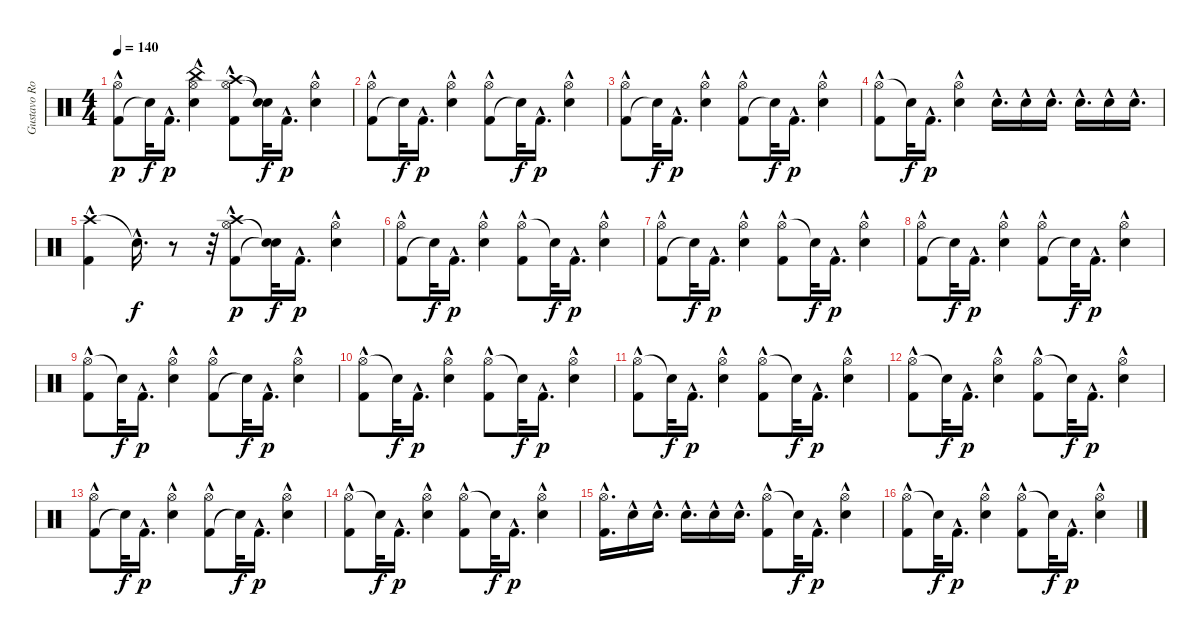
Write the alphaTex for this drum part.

\track ("Gustavo Rowek" "Gustavo Ro") {instrument percussion}
\staff {score}
\articulation defaults
\ts (4 4)
\tempo 140
\clef neutral
\ks c
("Kick (hit) 2"{hac} "Hi-Hat (open)").8{dy p} "Snare (hit)"{t}.32{dy f} "Kick (hit) 2"{hac}.16{d dy p} ("Hi-Hat (open)" "Snare (hit) 2"{hac} "China (hit)").4 ("Hi-Hat (open)" "Crash high (hit)" "Kick (hit) 2"{hac}).8 ("Snare (hit)"{t} "Snare (hit)"{t}).32{dy f} "Kick (hit) 2"{hac}.16{d dy p} ("Hi-Hat (open)" "Snare (hit) 2"{hac}).4 |
("Kick (hit) 2"{hac} "Hi-Hat (open)").8 "Snare (hit)"{t}.32{dy f} "Kick (hit) 2"{hac}.16{d dy p} ("Hi-Hat (open)" "Snare (hit) 2"{hac}).4 ("Kick (hit) 2"{hac} "Hi-Hat (open)").8 "Snare (hit)"{t}.32{dy f} "Kick (hit) 2"{hac}.16{d dy p} ("Hi-Hat (open)" "Snare (hit) 2"{hac}).4 |
("Kick (hit) 2"{hac} "Hi-Hat (open)").8 "Snare (hit)"{t}.32{dy f} "Kick (hit) 2"{hac}.16{d dy p} ("Snare (hit) 2"{hac} "Hi-Hat (open)").4 ("Kick (hit) 2"{hac} "Hi-Hat (open)").8 "Snare (hit)"{t}.32{dy f} "Kick (hit) 2"{hac}.16{d dy p} ("Snare (hit) 2"{hac} "Hi-Hat (open)").4 |
("Hi-Hat (open)" "Kick (hit) 2"{hac}).8 "Snare (hit)"{t}.32{dy f} "Kick (hit) 2"{hac}.16{d dy p} ("Snare (hit) 2"{hac} "Hi-Hat (open)").4 "Snare (hit) 2"{hac}.16{d} "Snare (hit) 2"{hac}.16 "Snare (hit) 2"{hac}.16{d} "Snare (hit) 2"{hac}.16{d} "Snare (hit) 2"{hac}.16 "Snare (hit) 2"{hac}.16{d} |
("Crash high (hit)" "Kick (hit) 2"{hac}).4 "Snare (hit)"{hac t}.16{d dy f} r.8 r.32 ("Kick (hit) 2"{hac} "Hi-Hat (open)" "Crash high (hit)").8{dy p} ("Snare (hit)"{t} "Snare (hit)"{t}).32{dy f} "Kick (hit) 2"{hac}.16{d dy p} ("Snare (hit) 2"{hac} "Hi-Hat (open)").4 |
("Kick (hit) 2"{hac} "Hi-Hat (open)").8 "Snare (hit)"{t}.32{dy f} "Kick (hit) 2"{hac}.16{d dy p} ("Snare (hit) 2"{hac} "Hi-Hat (open)").4 ("Hi-Hat (open)" "Kick (hit) 2"{hac}).8 "Snare (hit)"{t}.32{dy f} "Kick (hit) 2"{hac}.16{d dy p} ("Snare (hit) 2"{hac} "Hi-Hat (open)").4 |
("Kick (hit) 2"{hac} "Hi-Hat (open)").8 "Snare (hit)"{t}.32{dy f} "Kick (hit) 2"{hac}.16{d dy p} ("Hi-Hat (open)" "Snare (hit) 2"{hac}).4 ("Hi-Hat (open)" "Kick (hit) 2"{hac}).8 "Snare (hit)"{t}.32{dy f} "Kick (hit) 2"{hac}.16{d dy p} ("Hi-Hat (open)" "Snare (hit) 2"{hac}).4 |
("Kick (hit) 2"{hac} "Hi-Hat (open)").8 "Snare (hit)"{t}.32{dy f} "Kick (hit) 2"{hac}.16{d dy p} ("Snare (hit) 2"{hac} "Hi-Hat (open)").4 ("Kick (hit) 2"{hac} "Hi-Hat (open)").8 "Snare (hit)"{t}.32{dy f} "Kick (hit) 2"{hac}.16{d dy p} ("Hi-Hat (open)" "Snare (hit) 2"{hac}).4 |
("Hi-Hat (open)" "Kick (hit) 2"{hac}).8 "Snare (hit)"{t}.32{dy f} "Kick (hit) 2"{hac}.16{d dy p} ("Snare (hit) 2"{hac} "Hi-Hat (open)").4 ("Kick (hit) 2"{hac} "Hi-Hat (open)").8 "Snare (hit)"{t}.32{dy f} "Kick (hit) 2"{hac}.16{d dy p} ("Snare (hit) 2"{hac} "Hi-Hat (open)").4 |
("Hi-Hat (open)" "Kick (hit) 2"{hac}).8 "Snare (hit)"{t}.32{dy f} "Kick (hit) 2"{hac}.16{d dy p} ("Hi-Hat (open)" "Snare (hit) 2"{hac}).4 ("Hi-Hat (open)" "Kick (hit) 2"{hac}).8 "Snare (hit)"{t}.32{dy f} "Kick (hit) 2"{hac}.16{d dy p} ("Snare (hit) 2"{hac} "Hi-Hat (open)").4 |
("Hi-Hat (open)" "Kick (hit) 2"{hac}).8 "Snare (hit)"{t}.32{dy f} "Kick (hit) 2"{hac}.16{d dy p} ("Hi-Hat (open)" "Snare (hit) 2"{hac}).4 ("Hi-Hat (open)" "Kick (hit) 2"{hac}).8 "Snare (hit)"{t}.32{dy f} "Kick (hit) 2"{hac}.16{d dy p} ("Hi-Hat (open)" "Snare (hit) 2"{hac}).4 |
("Hi-Hat (open)" "Kick (hit) 2"{hac}).8 "Snare (hit)"{t}.32{dy f} "Kick (hit) 2"{hac}.16{d dy p} ("Snare (hit) 2"{hac} "Hi-Hat (open)").4 ("Hi-Hat (open)" "Kick (hit) 2"{hac}).8 "Snare (hit)"{t}.32{dy f} "Kick (hit) 2"{hac}.16{d dy p} ("Hi-Hat (open)" "Snare (hit) 2"{hac}).4 |
("Kick (hit) 2"{hac} "Hi-Hat (open)").8 "Snare (hit)"{t}.32{dy f} "Kick (hit) 2"{hac}.16{d dy p} ("Hi-Hat (open)" "Snare (hit) 2"{hac}).4 ("Kick (hit) 2"{hac} "Hi-Hat (open)").8 "Snare (hit)"{t}.32{dy f} "Kick (hit) 2"{hac}.16{d dy p} ("Hi-Hat (open)" "Snare (hit) 2"{hac}).4 |
("Hi-Hat (open)" "Kick (hit) 2"{hac}).8 "Snare (hit)"{t}.32{dy f} "Kick (hit) 2"{hac}.16{d dy p} ("Snare (hit) 2"{hac} "Hi-Hat (open)").4 ("Hi-Hat (open)" "Kick (hit) 2"{hac}).8 "Snare (hit)"{t}.32{dy f} "Kick (hit) 2"{hac}.16{d dy p} ("Snare (hit) 2"{hac} "Hi-Hat (open)").4 |
("Kick (hit) 2"{hac} "Hi-Hat (open)").16{d} "Snare (hit) 2"{hac}.16 "Snare (hit) 2"{hac}.16{d} "Snare (hit) 2"{hac}.16{d} "Snare (hit) 2"{hac}.16 "Snare (hit) 2"{hac}.16{d} ("Hi-Hat (open)" "Kick (hit) 2"{hac}).8 "Snare (hit)"{t}.32{dy f} "Kick (hit) 2"{hac}.16{d dy p} ("Snare (hit) 2"{hac} "Hi-Hat (open)").4 |
("Hi-Hat (open)" "Kick (hit) 2"{hac}).8 "Snare (hit)"{t}.32{dy f} "Kick (hit) 2"{hac}.16{d dy p} ("Hi-Hat (open)" "Snare (hit) 2"{hac}).4 ("Hi-Hat (open)" "Kick (hit) 2"{hac}).8 "Snare (hit)"{t}.32{dy f} "Kick (hit) 2"{hac}.16{d dy p} ("Hi-Hat (open)" "Snare (hit) 2"{hac}).4
